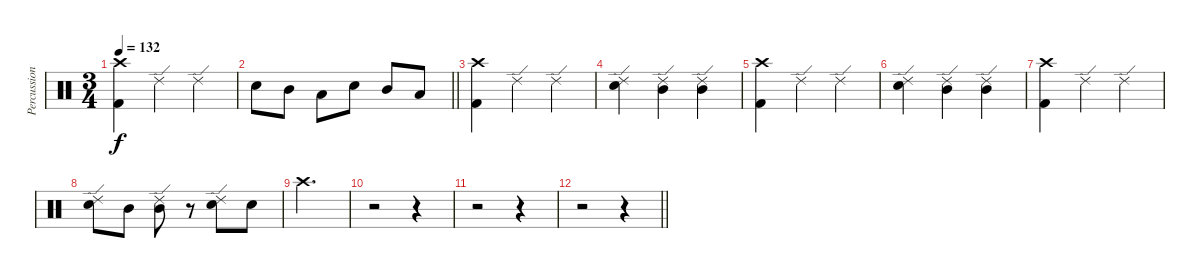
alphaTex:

\track ("Percussion" "Percussion") {instrument percussion}
\staff {score}
\articulation defaults
\ts (3 4)
\tempo 132
\clef neutral
\ks c
("Crash high (hit)" "Kick (hit) 2").4{dy f} "Ride (edge) 2".4 "Ride (edge) 2".4 |
\barLineRight lightlight "Snare (hit) 2".8 "Mid Tom (hit)".8 "Low Tom (hit)".8 "Snare (hit) 2".8 "Mid Tom (hit)".8 "Low Tom (hit)".8
|
("Crash high (hit)" "Kick (hit) 2").4 "Ride (edge) 2".4 "Ride (edge) 2".4 |
("Ride (edge) 2" "Snare (hit) 2").4 ("Ride (edge) 2" "Mid Tom (hit)").4 ("Ride (edge) 2" "Mid Tom (hit)").4 |
("Crash high (hit)" "Kick (hit) 2").4 "Ride (edge) 2".4 "Ride (edge) 2".4 |
("Ride (edge) 2" "Snare (hit) 2").4 ("Ride (edge) 2" "Mid Tom (hit)").4 ("Ride (edge) 2" "Mid Tom (hit)").4 |
("Crash high (hit)" "Kick (hit) 2").4 "Ride (edge) 2".4 "Ride (edge) 2".4 |
("Snare (hit) 2" "Ride (edge) 2").8 "Mid Tom (hit)".8 ("Mid Tom (hit)" "Ride (edge) 2").8 r.8 ("Snare (hit) 2" "Ride (edge) 2").8 "Snare (hit) 2".8 |
"Crash high (hit)".2{d} |
r.2 r.4 |
r.2 r.4 |
\barLineRight lightlight
r.2 r.4
